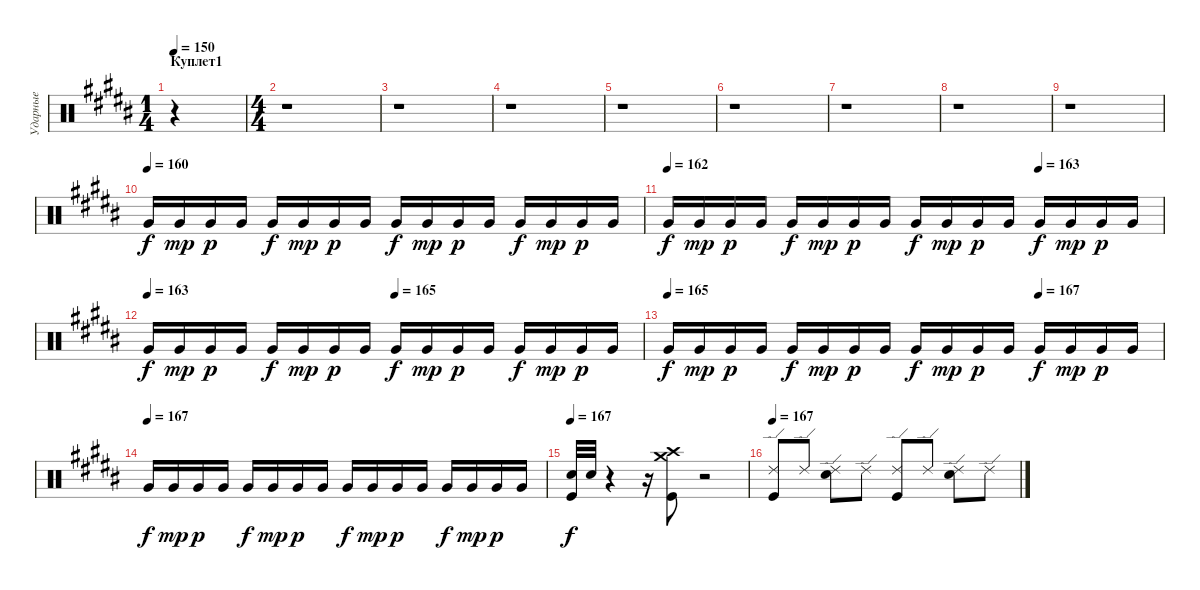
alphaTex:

\track ("Ударные" "Ударные") {instrument percussion}
\staff {score}
\articulation defaults
\ts (1 4)
\section ("" "Куплет1")
\tempo 150
\clef neutral
\ks b
r.4{dy f} |
\ts (4 4)
r.1 |
r.1 |
r.1 |
r.1 |
r.1 |
r.1 |
r.1 |
r.1 |
\tempo (160)
"Very Low Tom (hit)".16{volume 0} "Very Low Tom (hit)".16{dy mp volume 0} "Very Low Tom (hit)".16{dy p volume 0} "Very Low Tom (hit)".16{volume 0} "Very Low Tom (hit)".16{dy f volume 0} "Very Low Tom (hit)".16{dy mp volume 0} "Very Low Tom (hit)".16{dy p volume 0} "Very Low Tom (hit)".16{volume 0} "Very Low Tom (hit)".16{dy f volume 0} "Very Low Tom (hit)".16{dy mp volume 0} "Very Low Tom (hit)".16{dy p volume 0} "Very Low Tom (hit)".16{volume 0} "Very Low Tom (hit)".16{dy f volume 0} "Very Low Tom (hit)".16{dy mp volume 0} "Very Low Tom (hit)".16{dy p volume 0} "Very Low Tom (hit)".16{volume 0} |
\tempo 162
\tempo (163 0.75)
"Very Low Tom (hit)".16{dy f volume 0} "Very Low Tom (hit)".16{dy mp volume 0} "Very Low Tom (hit)".16{dy p volume 1} "Very Low Tom (hit)".16{volume 1} "Very Low Tom (hit)".16{dy f volume 1} "Very Low Tom (hit)".16{dy mp volume 1} "Very Low Tom (hit)".16{dy p volume 2} "Very Low Tom (hit)".16{volume 2} "Very Low Tom (hit)".16{dy f volume 2} "Very Low Tom (hit)".16{dy mp volume 2} "Very Low Tom (hit)".16{dy p volume 3} "Very Low Tom (hit)".16{volume 3} "Very Low Tom (hit)".16{dy f volume 3} "Very Low Tom (hit)".16{dy mp volume 3} "Very Low Tom (hit)".16{dy p volume 4} "Very Low Tom (hit)".16{volume 4} |
\tempo 163
\tempo (165 0.5)
"Very Low Tom (hit)".16{dy f volume 4} "Very Low Tom (hit)".16{dy mp volume 4} "Very Low Tom (hit)".16{dy p volume 5} "Very Low Tom (hit)".16{volume 5} "Very Low Tom (hit)".16{dy f volume 5} "Very Low Tom (hit)".16{dy mp volume 5} "Very Low Tom (hit)".16{dy p volume 6} "Very Low Tom (hit)".16{volume 6} "Very Low Tom (hit)".16{dy f volume 6} "Very Low Tom (hit)".16{dy mp volume 6} "Very Low Tom (hit)".16{dy p volume 7} "Very Low Tom (hit)".16{volume 7} "Very Low Tom (hit)".16{dy f volume 7} "Very Low Tom (hit)".16{dy mp volume 7} "Very Low Tom (hit)".16{dy p volume 8} "Very Low Tom (hit)".16{volume 8} |
\tempo 165
\tempo (167 0.75)
"Very Low Tom (hit)".16{dy f volume 8} "Very Low Tom (hit)".16{dy mp volume 8} "Very Low Tom (hit)".16{dy p volume 9} "Very Low Tom (hit)".16{volume 9} "Very Low Tom (hit)".16{dy f volume 9} "Very Low Tom (hit)".16{dy mp volume 9} "Very Low Tom (hit)".16{dy p volume 10} "Very Low Tom (hit)".16{volume 10} "Very Low Tom (hit)".16{dy f volume 10} "Very Low Tom (hit)".16{dy mp volume 10} "Very Low Tom (hit)".16{dy p volume 11} "Very Low Tom (hit)".16{volume 11} "Very Low Tom (hit)".16{dy f volume 11} "Very Low Tom (hit)".16{dy mp volume 11} "Very Low Tom (hit)".16{dy p volume 12} "Very Low Tom (hit)".16{volume 12} |
\tempo (167)
"Very Low Tom (hit)".16{dy f volume 12} "Very Low Tom (hit)".16{dy mp volume 12} "Very Low Tom (hit)".16{dy p volume 13} "Very Low Tom (hit)".16{volume 13} "Very Low Tom (hit)".16{dy f volume 13} "Very Low Tom (hit)".16{dy mp volume 13} "Very Low Tom (hit)".16{dy p volume 14} "Very Low Tom (hit)".16{volume 14} "Very Low Tom (hit)".16{dy f volume 14} "Very Low Tom (hit)".16{dy mp volume 14} "Very Low Tom (hit)".16{dy p volume 15} "Very Low Tom (hit)".16{volume 15} "Very Low Tom (hit)".16{dy f volume 15} "Very Low Tom (hit)".16{dy mp volume 15} "Very Low Tom (hit)".16{dy p volume 16} "Very Low Tom (hit)".16{volume 16} |
\tempo 167
("Electric Snare (hit)" "Kick (hit)").32{dy f} "Electric Snare (hit)".32 r.4 r.16 ("Kick (hit)" "Crash high (hit)" "Crash medium (hit)").8 r.2 |
\tempo 167
("Kick (hit)" "Ride (edge) 2").8 "Ride (edge) 2".8 ("Electric Snare (hit)" "Ride (edge) 2").8 "Ride (edge) 2".8 ("Kick (hit)" "Ride (edge) 2").8 "Ride (edge) 2".8 ("Electric Snare (hit)" "Ride (edge) 2").8 "Ride (edge) 2".8
